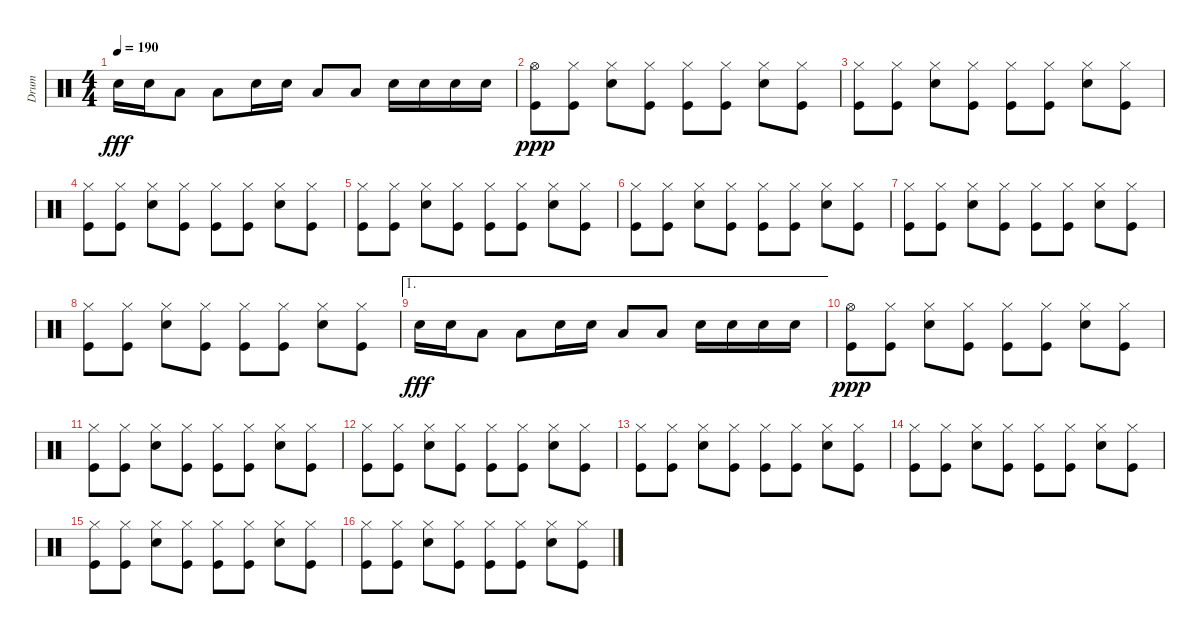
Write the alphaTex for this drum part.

\track ("Drum" "Drum") {instrument percussion}
\staff {score}
\articulation defaults
\ts (4 4)
\tempo 190
\clef neutral
\ks c "Snare (hit) 2".16{dy fff} "Snare (hit) 2".16 "Low Tom (hit)".8 "Low Tom (hit)".8 "Snare (hit) 2".16 "Snare (hit) 2".16 "Low Tom (hit)".8 "Low Tom (hit)".8 "Snare (hit) 2".16 "Snare (hit) 2".16 "Snare (hit) 2".16 "Snare (hit) 2".16
|
("Hi-Hat (open)" "Kick (hit)").8{dy ppp} ("Hi-Hat (closed)" "Kick (hit)").8 ("Hi-Hat (closed)" "Snare (hit) 2").8 ("Hi-Hat (closed)" "Kick (hit)").8 ("Hi-Hat (closed)" "Kick (hit)").8 ("Hi-Hat (closed)" "Kick (hit)").8 ("Hi-Hat (closed)" "Snare (hit) 2").8 ("Hi-Hat (closed)" "Kick (hit)").8 |
("Hi-Hat (closed)" "Kick (hit)").8 ("Hi-Hat (closed)" "Kick (hit)").8 ("Hi-Hat (closed)" "Snare (hit) 2").8 ("Hi-Hat (closed)" "Kick (hit)").8 ("Hi-Hat (closed)" "Kick (hit)").8 ("Hi-Hat (closed)" "Kick (hit)").8 ("Hi-Hat (closed)" "Snare (hit) 2").8 ("Hi-Hat (closed)" "Kick (hit)").8 |
("Hi-Hat (closed)" "Kick (hit)").8 ("Hi-Hat (closed)" "Kick (hit)").8 ("Hi-Hat (closed)" "Snare (hit) 2").8 ("Hi-Hat (closed)" "Kick (hit)").8 ("Hi-Hat (closed)" "Kick (hit)").8 ("Hi-Hat (closed)" "Kick (hit)").8 ("Hi-Hat (closed)" "Snare (hit) 2").8 ("Hi-Hat (closed)" "Kick (hit)").8 |
("Hi-Hat (closed)" "Kick (hit)").8 ("Hi-Hat (closed)" "Kick (hit)").8 ("Hi-Hat (closed)" "Snare (hit) 2").8 ("Hi-Hat (closed)" "Kick (hit)").8 ("Hi-Hat (closed)" "Kick (hit)").8 ("Hi-Hat (closed)" "Kick (hit)").8 ("Hi-Hat (closed)" "Snare (hit) 2").8 ("Hi-Hat (closed)" "Kick (hit)").8 |
("Hi-Hat (closed)" "Kick (hit)").8 ("Hi-Hat (closed)" "Kick (hit)").8 ("Hi-Hat (closed)" "Snare (hit) 2").8 ("Hi-Hat (closed)" "Kick (hit)").8 ("Hi-Hat (closed)" "Kick (hit)").8 ("Hi-Hat (closed)" "Kick (hit)").8 ("Hi-Hat (closed)" "Snare (hit) 2").8 ("Hi-Hat (closed)" "Kick (hit)").8 |
("Hi-Hat (closed)" "Kick (hit)").8 ("Hi-Hat (closed)" "Kick (hit)").8 ("Hi-Hat (closed)" "Snare (hit) 2").8 ("Hi-Hat (closed)" "Kick (hit)").8 ("Hi-Hat (closed)" "Kick (hit)").8 ("Hi-Hat (closed)" "Kick (hit)").8 ("Hi-Hat (closed)" "Snare (hit) 2").8 ("Hi-Hat (closed)" "Kick (hit)").8 |
("Hi-Hat (closed)" "Kick (hit)").8 ("Hi-Hat (closed)" "Kick (hit)").8 ("Hi-Hat (closed)" "Snare (hit) 2").8 ("Hi-Hat (closed)" "Kick (hit)").8 ("Hi-Hat (closed)" "Kick (hit)").8 ("Hi-Hat (closed)" "Kick (hit)").8 ("Hi-Hat (closed)" "Snare (hit) 2").8 ("Hi-Hat (closed)" "Kick (hit)").8 |
\ae 1 "Snare (hit) 2".16{dy fff} "Snare (hit) 2".16 "Low Tom (hit)".8 "Low Tom (hit)".8 "Snare (hit) 2".16 "Snare (hit) 2".16 "Low Tom (hit)".8 "Low Tom (hit)".8 "Snare (hit) 2".16 "Snare (hit) 2".16 "Snare (hit) 2".16 "Snare (hit) 2".16
|
("Hi-Hat (open)" "Kick (hit)").8{dy ppp} ("Hi-Hat (closed)" "Kick (hit)").8 ("Hi-Hat (closed)" "Snare (hit) 2").8 ("Hi-Hat (closed)" "Kick (hit)").8 ("Hi-Hat (closed)" "Kick (hit)").8 ("Hi-Hat (closed)" "Kick (hit)").8 ("Hi-Hat (closed)" "Snare (hit) 2").8 ("Hi-Hat (closed)" "Kick (hit)").8 |
("Hi-Hat (closed)" "Kick (hit)").8 ("Hi-Hat (closed)" "Kick (hit)").8 ("Hi-Hat (closed)" "Snare (hit) 2").8 ("Hi-Hat (closed)" "Kick (hit)").8 ("Hi-Hat (closed)" "Kick (hit)").8 ("Hi-Hat (closed)" "Kick (hit)").8 ("Hi-Hat (closed)" "Snare (hit) 2").8 ("Hi-Hat (closed)" "Kick (hit)").8 |
("Hi-Hat (closed)" "Kick (hit)").8 ("Hi-Hat (closed)" "Kick (hit)").8 ("Hi-Hat (closed)" "Snare (hit) 2").8 ("Hi-Hat (closed)" "Kick (hit)").8 ("Hi-Hat (closed)" "Kick (hit)").8 ("Hi-Hat (closed)" "Kick (hit)").8 ("Hi-Hat (closed)" "Snare (hit) 2").8 ("Hi-Hat (closed)" "Kick (hit)").8 |
("Hi-Hat (closed)" "Kick (hit)").8 ("Hi-Hat (closed)" "Kick (hit)").8 ("Hi-Hat (closed)" "Snare (hit) 2").8 ("Hi-Hat (closed)" "Kick (hit)").8 ("Hi-Hat (closed)" "Kick (hit)").8 ("Hi-Hat (closed)" "Kick (hit)").8 ("Hi-Hat (closed)" "Snare (hit) 2").8 ("Hi-Hat (closed)" "Kick (hit)").8 |
("Hi-Hat (closed)" "Kick (hit)").8 ("Hi-Hat (closed)" "Kick (hit)").8 ("Hi-Hat (closed)" "Snare (hit) 2").8 ("Hi-Hat (closed)" "Kick (hit)").8 ("Hi-Hat (closed)" "Kick (hit)").8 ("Hi-Hat (closed)" "Kick (hit)").8 ("Hi-Hat (closed)" "Snare (hit) 2").8 ("Hi-Hat (closed)" "Kick (hit)").8 |
("Hi-Hat (closed)" "Kick (hit)").8 ("Hi-Hat (closed)" "Kick (hit)").8 ("Hi-Hat (closed)" "Snare (hit) 2").8 ("Hi-Hat (closed)" "Kick (hit)").8 ("Hi-Hat (closed)" "Kick (hit)").8 ("Hi-Hat (closed)" "Kick (hit)").8 ("Hi-Hat (closed)" "Snare (hit) 2").8 ("Hi-Hat (closed)" "Kick (hit)").8 |
("Hi-Hat (closed)" "Kick (hit)").8 ("Hi-Hat (closed)" "Kick (hit)").8 ("Hi-Hat (closed)" "Snare (hit) 2").8 ("Hi-Hat (closed)" "Kick (hit)").8 ("Hi-Hat (closed)" "Kick (hit)").8 ("Hi-Hat (closed)" "Kick (hit)").8 ("Hi-Hat (closed)" "Snare (hit) 2").8 ("Hi-Hat (closed)" "Kick (hit)").8
